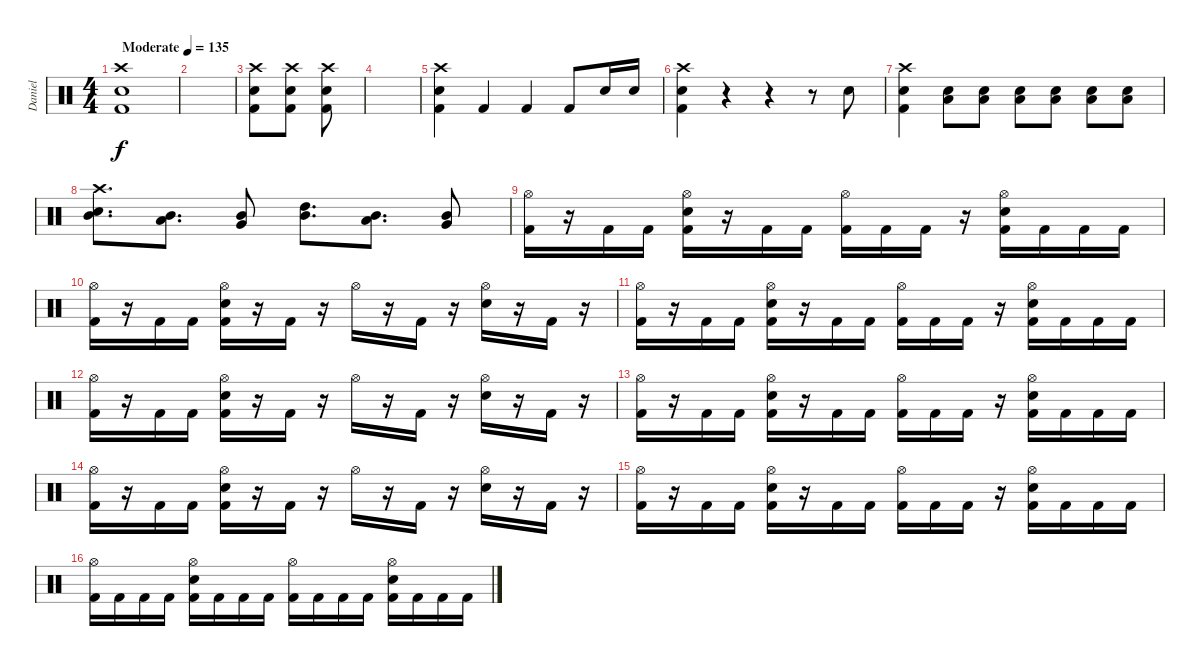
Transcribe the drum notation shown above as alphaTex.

\track ("Daniel" "Daniel") {instrument percussion}
\staff {score}
\articulation defaults
\ts (4 4)
\tempo (135 "Moderate")
\clef neutral
\ks c
("Crash high (hit)" "Electric Snare (hit)" "Kick (hit) 2").1{dy f} |
|
("Crash high (hit)" "Electric Snare (hit)" "Kick (hit) 2").8 ("Crash high (hit)" "Electric Snare (hit)" "Kick (hit) 2").8 ("Crash high (hit)" "Electric Snare (hit)" "Kick (hit) 2").8 |
|
("Crash high (hit)" "Electric Snare (hit)" "Kick (hit) 2").4 "Kick (hit) 2".4 "Kick (hit) 2".4 "Kick (hit) 2".8 "Electric Snare (hit)".16 "Electric Snare (hit)".16 |
("Crash high (hit)" "Electric Snare (hit)" "Kick (hit) 2").4 r.4 r.4 r.8 "Electric Snare (hit)".8 |
("Crash high (hit)" "Electric Snare (hit)" "Kick (hit) 2").4 ("Low Tom (hit)" "Electric Snare (hit)").8{volume 6} ("Low Tom (hit)" "Electric Snare (hit)").8{volume 14} ("Low Tom (hit)" "Electric Snare (hit)").8 ("Low Tom (hit)" "Electric Snare (hit)").8 ("Low Tom (hit)" "Electric Snare (hit)").8 ("Low Tom (hit)" "Electric Snare (hit)").8 |
("Mid Tom (hit)" "Electric Snare (hit)" "Crash high (hit)").8{d} ("Mid Tom (hit)" "Low Tom (hit)").8{d} ("Mid Tom (hit)" "Very Low Tom (hit)").8 ("Mid Tom (hit)" "High Tom (hit)").8{d} ("Mid Tom (hit)" "Low Tom (hit)").8{d} ("Mid Tom (hit)" "Very Low Tom (hit)").8 |
("Hi-Hat (open)" "Kick (hit) 2").16 r.16 "Kick (hit) 2".16 "Kick (hit) 2".16 ("Hi-Hat (open)" "Electric Snare (hit)" "Kick (hit) 2").16 r.16 "Kick (hit) 2".16 "Kick (hit) 2".16 ("Hi-Hat (open)" "Kick (hit) 2").16 "Kick (hit) 2".16 "Kick (hit) 2".16 r.16 ("Hi-Hat (open)" "Electric Snare (hit)" "Kick (hit) 2").16 "Kick (hit) 2".16 "Kick (hit) 2".16 "Kick (hit) 2".16 |
("Hi-Hat (open)" "Kick (hit) 2").16 r.16 "Kick (hit) 2".16 "Kick (hit) 2".16 ("Hi-Hat (open)" "Electric Snare (hit)" "Kick (hit) 2").16 r.16 "Kick (hit) 2".16 r.16 "Hi-Hat (open)".16 r.16 "Kick (hit) 2".16 r.16 ("Hi-Hat (open)" "Electric Snare (hit)").16 r.16 "Kick (hit) 2".16 r.16 |
("Hi-Hat (open)" "Kick (hit) 2").16 r.16 "Kick (hit) 2".16 "Kick (hit) 2".16 ("Hi-Hat (open)" "Electric Snare (hit)" "Kick (hit) 2").16 r.16 "Kick (hit) 2".16 "Kick (hit) 2".16 ("Hi-Hat (open)" "Kick (hit) 2").16 "Kick (hit) 2".16 "Kick (hit) 2".16 r.16 ("Hi-Hat (open)" "Electric Snare (hit)" "Kick (hit) 2").16 "Kick (hit) 2".16 "Kick (hit) 2".16 "Kick (hit) 2".16 |
("Hi-Hat (open)" "Kick (hit) 2").16 r.16 "Kick (hit) 2".16 "Kick (hit) 2".16 ("Hi-Hat (open)" "Electric Snare (hit)" "Kick (hit) 2").16 r.16 "Kick (hit) 2".16 r.16 "Hi-Hat (open)".16 r.16 "Kick (hit) 2".16 r.16 ("Hi-Hat (open)" "Electric Snare (hit)").16 r.16 "Kick (hit) 2".16 r.16 |
("Hi-Hat (open)" "Kick (hit) 2").16 r.16 "Kick (hit) 2".16 "Kick (hit) 2".16 ("Hi-Hat (open)" "Electric Snare (hit)" "Kick (hit) 2").16 r.16 "Kick (hit) 2".16 "Kick (hit) 2".16 ("Hi-Hat (open)" "Kick (hit) 2").16 "Kick (hit) 2".16 "Kick (hit) 2".16 r.16 ("Hi-Hat (open)" "Electric Snare (hit)" "Kick (hit) 2").16 "Kick (hit) 2".16 "Kick (hit) 2".16 "Kick (hit) 2".16 |
("Hi-Hat (open)" "Kick (hit) 2").16 r.16 "Kick (hit) 2".16 "Kick (hit) 2".16 ("Hi-Hat (open)" "Electric Snare (hit)" "Kick (hit) 2").16 r.16 "Kick (hit) 2".16 r.16 "Hi-Hat (open)".16 r.16 "Kick (hit) 2".16 r.16 ("Hi-Hat (open)" "Electric Snare (hit)").16 r.16 "Kick (hit) 2".16 r.16 |
("Hi-Hat (open)" "Kick (hit) 2").16 r.16 "Kick (hit) 2".16 "Kick (hit) 2".16 ("Hi-Hat (open)" "Electric Snare (hit)" "Kick (hit) 2").16 r.16 "Kick (hit) 2".16 "Kick (hit) 2".16 ("Hi-Hat (open)" "Kick (hit) 2").16 "Kick (hit) 2".16 "Kick (hit) 2".16 r.16 ("Hi-Hat (open)" "Electric Snare (hit)" "Kick (hit) 2").16 "Kick (hit) 2".16 "Kick (hit) 2".16 "Kick (hit) 2".16 |
("Hi-Hat (open)" "Kick (hit) 2").16 "Kick (hit) 2".16 "Kick (hit) 2".16 "Kick (hit) 2".16 ("Hi-Hat (open)" "Electric Snare (hit)" "Kick (hit) 2").16 "Kick (hit) 2".16 "Kick (hit) 2".16 "Kick (hit) 2".16 ("Hi-Hat (open)" "Kick (hit) 2").16 "Kick (hit) 2".16 "Kick (hit) 2".16 "Kick (hit) 2".16 ("Hi-Hat (open)" "Electric Snare (hit)" "Kick (hit) 2").16 "Kick (hit) 2".16 "Kick (hit) 2".16 "Kick (hit) 2".16
